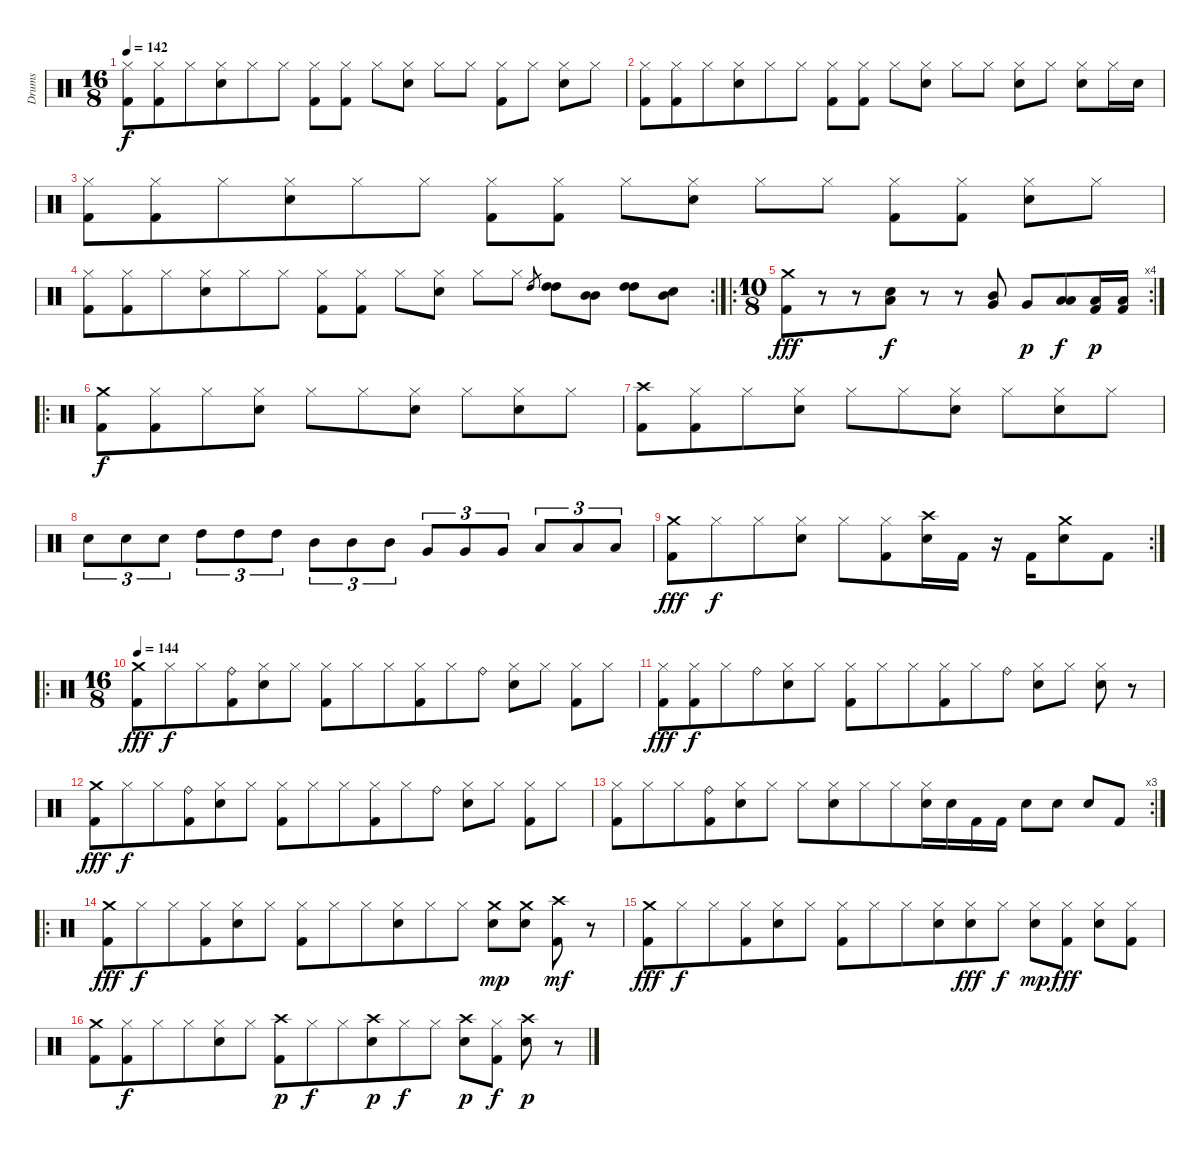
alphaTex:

\track ("Drums" "Drums") {instrument percussion}
\staff {score}
\articulation defaults
\ts (16 8)
\tempo 142
\clef neutral
\ks c
("Hi-Hat (closed)" "Kick (hit) 2").8{dy f beam merge} ("Hi-Hat (closed)" "Kick (hit) 2").8{beam merge} "Hi-Hat (closed)".8 ("Hi-Hat (closed)" "Electric Snare (hit)").8{beam merge} "Hi-Hat (closed)".8{beam merge} "Hi-Hat (closed)".8 ("Hi-Hat (closed)" "Kick (hit) 2").8{beam merge} ("Hi-Hat (closed)" "Kick (hit) 2").8{beam split} "Hi-Hat (closed)".8{beam merge} ("Hi-Hat (closed)" "Electric Snare (hit)").8 "Hi-Hat (closed)".8 "Hi-Hat (closed)".8 ("Hi-Hat (closed)" "Kick (hit) 2").8 "Hi-Hat (closed)".8 ("Hi-Hat (closed)" "Electric Snare (hit)").8 "Hi-Hat (closed)".8 |
("Hi-Hat (closed)" "Kick (hit) 2").8{beam merge} ("Hi-Hat (closed)" "Kick (hit) 2").8{beam merge} "Hi-Hat (closed)".8 ("Hi-Hat (closed)" "Electric Snare (hit)").8{beam merge} "Hi-Hat (closed)".8{beam merge} "Hi-Hat (closed)".8 ("Hi-Hat (closed)" "Kick (hit) 2").8{beam merge} ("Hi-Hat (closed)" "Kick (hit) 2").8{beam split} "Hi-Hat (closed)".8{beam merge} ("Hi-Hat (closed)" "Electric Snare (hit)").8 "Hi-Hat (closed)".8 "Hi-Hat (closed)".8 ("Hi-Hat (closed)" "Electric Snare (hit)").8 "Hi-Hat (closed)".8 ("Hi-Hat (closed)" "Electric Snare (hit)").8 "Hi-Hat (closed)".16 "Electric Snare (hit)".16 |
("Hi-Hat (closed)" "Kick (hit) 2").8{beam merge} ("Hi-Hat (closed)" "Kick (hit) 2").8{beam merge} "Hi-Hat (closed)".8 ("Hi-Hat (closed)" "Electric Snare (hit)").8{beam merge} "Hi-Hat (closed)".8{beam merge} "Hi-Hat (closed)".8 ("Hi-Hat (closed)" "Kick (hit) 2").8{beam merge} ("Hi-Hat (closed)" "Kick (hit) 2").8{beam split} "Hi-Hat (closed)".8{beam merge} ("Hi-Hat (closed)" "Electric Snare (hit)").8 "Hi-Hat (closed)".8 "Hi-Hat (closed)".8 ("Hi-Hat (closed)" "Kick (hit) 2").8 ("Hi-Hat (closed)" "Kick (hit) 2").8 ("Hi-Hat (closed)" "Electric Snare (hit)").8 "Hi-Hat (closed)".8 |
\rc 2
("Hi-Hat (closed)" "Kick (hit) 2").8{beam merge} ("Hi-Hat (closed)" "Kick (hit) 2").8{beam merge} "Hi-Hat (closed)".8 ("Hi-Hat (closed)" "Electric Snare (hit)").8{beam merge} "Hi-Hat (closed)".8{beam merge} "Hi-Hat (closed)".8 ("Hi-Hat (closed)" "Kick (hit) 2").8{beam merge} ("Hi-Hat (closed)" "Kick (hit) 2").8{beam split} "Hi-Hat (closed)".8{beam merge} ("Hi-Hat (closed)" "Electric Snare (hit)").8 "Hi-Hat (closed)".8 "Hi-Hat (closed)".8 "High Tom (hit)".8{gr beam split} ("High Tom (hit)" "High Tom (hit)").8 ("Mid Tom (hit)" "Mid Tom (hit)").8 ("High Tom (hit)" "High Tom (hit)").8 ("Electric Snare (hit)" "Mid Tom (hit)").8 |
\ro
\rc 4
\ts (10 8)
("Crash medium (hit)" "Kick (hit) 2").8{dy fff} r.8 r.8 ("Electric Snare (hit)" "Low Floor Tom (hit)").8{dy f} r.8 r.8 ("Mid Tom (hit)" "Very Low Tom (hit)").8 "Very Low Tom (hit)".8{dy p} ("Low Tom (hit)" "Low Floor Tom (hit)").8{dy f} ("Low Floor Tom (hit)" "Kick (hit) 2").16{dy p} ("Low Floor Tom (hit)" "Kick (hit) 2").16 |
\ro
("Crash medium (hit)" "Kick (hit) 2").8{dy f} ("Hi-Hat (closed)" "Kick (hit) 2").8 "Hi-Hat (closed)".8 ("Hi-Hat (closed)" "Electric Snare (hit)").8 "Hi-Hat (closed)".8 "Hi-Hat (closed)".8 ("Hi-Hat (closed)" "Electric Snare (hit)").8 "Hi-Hat (closed)".8 ("Hi-Hat (closed)" "Electric Snare (hit)").8 "Hi-Hat (closed)".8 |
("Crash high (hit)" "Kick (hit) 2").8 ("Hi-Hat (closed)" "Kick (hit) 2").8 "Hi-Hat (closed)".8 ("Hi-Hat (closed)" "Electric Snare (hit)").8 "Hi-Hat (closed)".8 "Hi-Hat (closed)".8 ("Hi-Hat (closed)" "Electric Snare (hit)").8 "Hi-Hat (closed)".8 ("Hi-Hat (closed)" "Electric Snare (hit)").8 "Hi-Hat (closed)".8 |
"Electric Snare (hit)".8{tu (3 2)} "Electric Snare (hit)".8{tu (3 2) beam merge} "Electric Snare (hit)".8{tu (3 2)} "High Tom (hit)".8{tu (3 2)} "High Tom (hit)".8{tu (3 2) beam merge} "High Tom (hit)".8{tu (3 2)} "Mid Tom (hit)".8{tu (3 2)} "Mid Tom (hit)".8{tu (3 2) beam merge} "Mid Tom (hit)".8{tu (3 2)} "Very Low Tom (hit)".8{tu (3 2)} "Very Low Tom (hit)".8{tu (3 2) beam merge} "Very Low Tom (hit)".8{tu (3 2)} "Low Floor Tom (hit)".8{tu (3 2)} "Low Floor Tom (hit)".8{tu (3 2) beam merge} "Low Floor Tom (hit)".8{tu (3 2)} |
\rc 2
("Crash medium (hit)" "Kick (hit) 2").8{dy fff} "Hi-Hat (closed)".8{dy f} "Hi-Hat (closed)".8 ("Hi-Hat (closed)" "Electric Snare (hit)").8 "Hi-Hat (closed)".8 ("Hi-Hat (closed)" "Kick (hit) 2").8 ("Crash high (hit)" "Electric Snare (hit)").16 "Kick (hit) 2".16 r.16 "Kick (hit) 2".16 ("Crash medium (hit)" "Electric Snare (hit)").8{beam merge} "Kick (hit) 2".8 |
\ro
\ts (16 8)
\tempo 144
("Crash medium (hit)" "Kick (hit) 2").8{dy fff beam merge} "Hi-Hat (closed)".8{dy f beam merge} "Hi-Hat (closed)".8 ("Ride (bell)" "Kick (hit) 2").8{beam merge} ("Hi-Hat (closed)" "Electric Snare (hit)").8{beam merge} "Hi-Hat (closed)".8 ("Hi-Hat (closed)" "Kick (hit) 2").8{beam merge} "Hi-Hat (closed)".8{beam merge} "Hi-Hat (closed)".8 ("Hi-Hat (closed)" "Kick (hit) 2").8{beam merge} "Hi-Hat (closed)".8{beam merge} "Ride (bell)".8 ("Hi-Hat (closed)" "Electric Snare (hit)").8{beam merge} "Hi-Hat (closed)".8 ("Hi-Hat (closed)" "Kick (hit) 2").8{beam merge} "Hi-Hat (closed)".8 |
("Hi-Hat (closed)" "Kick (hit) 2").8{dy fff beam merge} ("Hi-Hat (closed)" "Kick (hit) 2").8{dy f beam merge} "Hi-Hat (closed)".8 "Ride (bell)".8{beam merge} ("Hi-Hat (closed)" "Electric Snare (hit)").8{beam merge} "Hi-Hat (closed)".8 ("Hi-Hat (closed)" "Kick (hit) 2").8{beam merge} "Hi-Hat (closed)".8{beam merge} "Hi-Hat (closed)".8 ("Hi-Hat (closed)" "Kick (hit) 2").8{beam merge} "Hi-Hat (closed)".8{beam merge} "Ride (bell)".8 ("Hi-Hat (closed)" "Electric Snare (hit)").8{beam merge} "Hi-Hat (closed)".8 ("Hi-Hat (closed)" "Electric Snare (hit)").8{beam merge} r.8 |
("Crash medium (hit)" "Kick (hit) 2").8{dy fff beam merge} "Hi-Hat (closed)".8{dy f beam merge} "Hi-Hat (closed)".8 ("Ride (bell)" "Kick (hit) 2").8{beam merge} ("Hi-Hat (closed)" "Electric Snare (hit)").8{beam merge} "Hi-Hat (closed)".8 ("Hi-Hat (closed)" "Kick (hit) 2").8{beam merge} "Hi-Hat (closed)".8{beam merge} "Hi-Hat (closed)".8 ("Hi-Hat (closed)" "Kick (hit) 2").8{beam merge} "Hi-Hat (closed)".8{beam merge} "Ride (bell)".8 ("Hi-Hat (closed)" "Electric Snare (hit)").8{beam merge} "Hi-Hat (closed)".8 ("Hi-Hat (closed)" "Kick (hit) 2").8{beam merge} "Hi-Hat (closed)".8 |
\rc 3
("Hi-Hat (closed)" "Kick (hit) 2").8{beam merge} "Hi-Hat (closed)".8{beam merge} "Hi-Hat (closed)".8 ("Ride (bell)" "Kick (hit) 2").8{beam merge} ("Hi-Hat (closed)" "Electric Snare (hit)").8{beam merge} "Hi-Hat (closed)".8 "Hi-Hat (closed)".8{beam merge} ("Hi-Hat (closed)" "Electric Snare (hit)").8{beam merge} "Hi-Hat (closed)".8 "Hi-Hat (closed)".8{beam merge} ("Hi-Hat (closed)" "Electric Snare (hit)").16{beam merge} "Electric Snare (hit)".16{beam merge} "Kick (hit) 2".16{beam merge} "Kick (hit) 2".16{beam split} "Electric Snare (hit)".8{beam merge} "Electric Snare (hit)".8 "Electric Snare (hit)".8{beam merge} "Kick (hit) 2".8 |
\ro
("Crash medium (hit)" "Kick (hit) 2").8{dy fff beam merge} "Hi-Hat (closed)".8{dy f beam merge} "Hi-Hat (closed)".8 ("Hi-Hat (closed)" "Kick (hit) 2").8{beam merge} ("Hi-Hat (closed)" "Electric Snare (hit)").8{beam merge} "Hi-Hat (closed)".8 ("Hi-Hat (closed)" "Kick (hit) 2").8{beam merge} "Hi-Hat (closed)".8{beam merge} "Hi-Hat (closed)".8 ("Hi-Hat (closed)" "Electric Snare (hit)").8{beam merge} "Hi-Hat (closed)".8{beam merge} "Hi-Hat (closed)".8 ("Crash medium (hit)" "Electric Snare (hit)").8{dy mp beam merge} ("Crash medium (hit)" "Electric Snare (hit)").8 ("Crash high (hit)" "Kick (hit) 2").8{dy mf} r.8 |
("Crash medium (hit)" "Kick (hit) 2").8{dy fff beam merge} "Hi-Hat (closed)".8{dy f beam merge} "Hi-Hat (closed)".8 ("Hi-Hat (closed)" "Kick (hit) 2").8{beam merge} ("Hi-Hat (closed)" "Electric Snare (hit)").8{beam merge} "Hi-Hat (closed)".8 ("Hi-Hat (closed)" "Kick (hit) 2").8{beam merge} "Hi-Hat (closed)".8{beam merge} "Hi-Hat (closed)".8 ("Hi-Hat (closed)" "Electric Snare (hit)").8{beam merge} ("Hi-Hat (closed)" "Electric Snare (hit)").8{dy fff beam merge} "Hi-Hat (closed)".8{dy f} ("Hi-Hat (closed)" "Electric Snare (hit)").8{dy mp beam merge} ("Hi-Hat (closed)" "Kick (hit) 2").8{dy fff} ("Hi-Hat (closed)" "Electric Snare (hit)").8{beam merge} ("Hi-Hat (closed)" "Kick (hit) 2").8 |
("Crash medium (hit)" "Kick (hit) 2").8{beam merge} ("Hi-Hat (closed)" "Kick (hit) 2").8{dy f beam merge} "Hi-Hat (closed)".8 "Hi-Hat (closed)".8{beam merge} ("Hi-Hat (closed)" "Electric Snare (hit)").8{beam merge} "Hi-Hat (closed)".8 ("Crash high (hit)" "Kick (hit) 2").8{dy p beam merge} "Hi-Hat (closed)".8{dy f beam merge} "Hi-Hat (closed)".8 ("Crash high (hit)" "Electric Snare (hit)").8{dy p beam merge} "Hi-Hat (closed)".8{dy f beam merge} "Hi-Hat (closed)".8 ("Crash high (hit)" "Electric Snare (hit)").8{dy p beam merge} ("Hi-Hat (closed)" "Kick (hit) 2").8{dy f} ("Crash high (hit)" "Electric Snare (hit)").8{dy p} r.8
